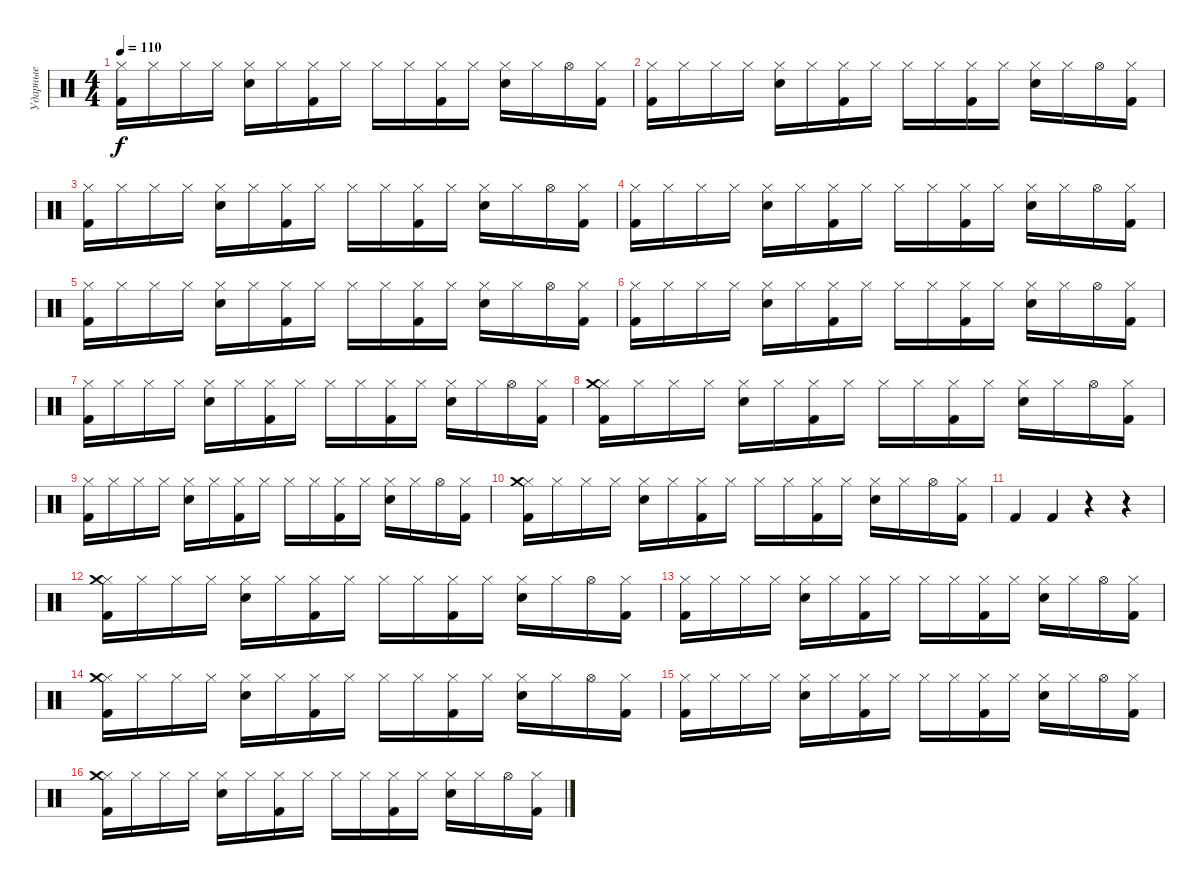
\track ("Ударные" "Ударные") {instrument percussion}
\staff {score}
\articulation defaults
\ts (4 4)
\tempo 110
\clef neutral
\ks c
("Hi-Hat (closed)" "Kick (hit) 2").16{dy f} "Hi-Hat (closed)".16 "Hi-Hat (closed)".16 "Hi-Hat (closed)".16 ("Hi-Hat (closed)" "Electric Snare (hit)").16 "Hi-Hat (closed)".16 ("Hi-Hat (closed)" "Kick (hit) 2").16 "Hi-Hat (closed)".16 "Hi-Hat (closed)".16 "Hi-Hat (closed)".16 ("Hi-Hat (closed)" "Kick (hit) 2").16 "Hi-Hat (closed)".16 ("Hi-Hat (closed)" "Electric Snare (hit)").16 "Hi-Hat (closed)".16 "Hi-Hat (open)".16 ("Hi-Hat (closed)" "Kick (hit) 2").16 |
("Hi-Hat (closed)" "Kick (hit) 2").16 "Hi-Hat (closed)".16 "Hi-Hat (closed)".16 "Hi-Hat (closed)".16 ("Hi-Hat (closed)" "Electric Snare (hit)").16 "Hi-Hat (closed)".16 ("Hi-Hat (closed)" "Kick (hit) 2").16 "Hi-Hat (closed)".16 "Hi-Hat (closed)".16 "Hi-Hat (closed)".16 ("Hi-Hat (closed)" "Kick (hit) 2").16 "Hi-Hat (closed)".16 ("Hi-Hat (closed)" "Electric Snare (hit)").16 "Hi-Hat (closed)".16 "Hi-Hat (open)".16 ("Hi-Hat (closed)" "Kick (hit) 2").16 |
("Hi-Hat (closed)" "Kick (hit) 2").16 "Hi-Hat (closed)".16 "Hi-Hat (closed)".16 "Hi-Hat (closed)".16 ("Hi-Hat (closed)" "Electric Snare (hit)").16 "Hi-Hat (closed)".16 ("Hi-Hat (closed)" "Kick (hit) 2").16 "Hi-Hat (closed)".16 "Hi-Hat (closed)".16 "Hi-Hat (closed)".16 ("Hi-Hat (closed)" "Kick (hit) 2").16 "Hi-Hat (closed)".16 ("Hi-Hat (closed)" "Electric Snare (hit)").16 "Hi-Hat (closed)".16 "Hi-Hat (open)".16 ("Hi-Hat (closed)" "Kick (hit) 2").16 |
("Hi-Hat (closed)" "Kick (hit) 2").16 "Hi-Hat (closed)".16 "Hi-Hat (closed)".16 "Hi-Hat (closed)".16 ("Hi-Hat (closed)" "Electric Snare (hit)").16 "Hi-Hat (closed)".16 ("Hi-Hat (closed)" "Kick (hit) 2").16 "Hi-Hat (closed)".16 "Hi-Hat (closed)".16 "Hi-Hat (closed)".16 ("Hi-Hat (closed)" "Kick (hit) 2").16 "Hi-Hat (closed)".16 ("Hi-Hat (closed)" "Electric Snare (hit)").16 "Hi-Hat (closed)".16 "Hi-Hat (open)".16 ("Hi-Hat (closed)" "Kick (hit) 2").16 |
("Hi-Hat (closed)" "Kick (hit) 2").16 "Hi-Hat (closed)".16 "Hi-Hat (closed)".16 "Hi-Hat (closed)".16 ("Hi-Hat (closed)" "Electric Snare (hit)").16 "Hi-Hat (closed)".16 ("Hi-Hat (closed)" "Kick (hit) 2").16 "Hi-Hat (closed)".16 "Hi-Hat (closed)".16 "Hi-Hat (closed)".16 ("Hi-Hat (closed)" "Kick (hit) 2").16 "Hi-Hat (closed)".16 ("Hi-Hat (closed)" "Electric Snare (hit)").16 "Hi-Hat (closed)".16 "Hi-Hat (open)".16 ("Hi-Hat (closed)" "Kick (hit) 2").16 |
("Hi-Hat (closed)" "Kick (hit) 2").16 "Hi-Hat (closed)".16 "Hi-Hat (closed)".16 "Hi-Hat (closed)".16 ("Hi-Hat (closed)" "Electric Snare (hit)").16 "Hi-Hat (closed)".16 ("Hi-Hat (closed)" "Kick (hit) 2").16 "Hi-Hat (closed)".16 "Hi-Hat (closed)".16 "Hi-Hat (closed)".16 ("Hi-Hat (closed)" "Kick (hit) 2").16 "Hi-Hat (closed)".16 ("Hi-Hat (closed)" "Electric Snare (hit)").16 "Hi-Hat (closed)".16 "Hi-Hat (open)".16 ("Hi-Hat (closed)" "Kick (hit) 2").16 |
("Hi-Hat (closed)" "Kick (hit) 2").16 "Hi-Hat (closed)".16 "Hi-Hat (closed)".16 "Hi-Hat (closed)".16 ("Hi-Hat (closed)" "Electric Snare (hit)").16 "Hi-Hat (closed)".16 ("Hi-Hat (closed)" "Kick (hit) 2").16 "Hi-Hat (closed)".16 "Hi-Hat (closed)".16 "Hi-Hat (closed)".16 ("Hi-Hat (closed)" "Kick (hit) 2").16 "Hi-Hat (closed)".16 ("Hi-Hat (closed)" "Electric Snare (hit)").16 "Hi-Hat (closed)".16 "Hi-Hat (open)".16 ("Hi-Hat (closed)" "Kick (hit) 2").16 |
("Hi-Hat (closed)" "Kick (hit) 2" "Crash medium (hit)").16 "Hi-Hat (closed)".16 "Hi-Hat (closed)".16 "Hi-Hat (closed)".16 ("Hi-Hat (closed)" "Electric Snare (hit)").16 "Hi-Hat (closed)".16 ("Hi-Hat (closed)" "Kick (hit) 2").16 "Hi-Hat (closed)".16 "Hi-Hat (closed)".16 "Hi-Hat (closed)".16 ("Hi-Hat (closed)" "Kick (hit) 2").16 "Hi-Hat (closed)".16 ("Hi-Hat (closed)" "Electric Snare (hit)").16 "Hi-Hat (closed)".16 "Hi-Hat (open)".16 ("Hi-Hat (closed)" "Kick (hit) 2").16 |
("Hi-Hat (closed)" "Kick (hit) 2").16 "Hi-Hat (closed)".16 "Hi-Hat (closed)".16 "Hi-Hat (closed)".16 ("Hi-Hat (closed)" "Electric Snare (hit)").16 "Hi-Hat (closed)".16 ("Hi-Hat (closed)" "Kick (hit) 2").16 "Hi-Hat (closed)".16 "Hi-Hat (closed)".16 "Hi-Hat (closed)".16 ("Hi-Hat (closed)" "Kick (hit) 2").16 "Hi-Hat (closed)".16 ("Hi-Hat (closed)" "Electric Snare (hit)").16 "Hi-Hat (closed)".16 "Hi-Hat (open)".16 ("Hi-Hat (closed)" "Kick (hit) 2").16 |
("Hi-Hat (closed)" "Kick (hit) 2" "Crash medium (hit)").16 "Hi-Hat (closed)".16 "Hi-Hat (closed)".16 "Hi-Hat (closed)".16 ("Hi-Hat (closed)" "Electric Snare (hit)").16 "Hi-Hat (closed)".16 ("Hi-Hat (closed)" "Kick (hit) 2").16 "Hi-Hat (closed)".16 "Hi-Hat (closed)".16 "Hi-Hat (closed)".16 ("Hi-Hat (closed)" "Kick (hit) 2").16 "Hi-Hat (closed)".16 ("Hi-Hat (closed)" "Electric Snare (hit)").16 "Hi-Hat (closed)".16 "Hi-Hat (open)".16 ("Hi-Hat (closed)" "Kick (hit) 2").16 |
"Kick (hit) 2".4 "Kick (hit) 2".4 r.4 r.4 |
("Hi-Hat (closed)" "Kick (hit) 2" "Crash medium (hit)").16 "Hi-Hat (closed)".16 "Hi-Hat (closed)".16 "Hi-Hat (closed)".16 ("Hi-Hat (closed)" "Electric Snare (hit)").16 "Hi-Hat (closed)".16 ("Hi-Hat (closed)" "Kick (hit) 2").16 "Hi-Hat (closed)".16 "Hi-Hat (closed)".16 "Hi-Hat (closed)".16 ("Hi-Hat (closed)" "Kick (hit) 2").16 "Hi-Hat (closed)".16 ("Hi-Hat (closed)" "Electric Snare (hit)").16 "Hi-Hat (closed)".16 "Hi-Hat (open)".16 ("Hi-Hat (closed)" "Kick (hit) 2").16 |
("Hi-Hat (closed)" "Kick (hit) 2").16 "Hi-Hat (closed)".16 "Hi-Hat (closed)".16 "Hi-Hat (closed)".16 ("Hi-Hat (closed)" "Electric Snare (hit)").16 "Hi-Hat (closed)".16 ("Hi-Hat (closed)" "Kick (hit) 2").16 "Hi-Hat (closed)".16 "Hi-Hat (closed)".16 "Hi-Hat (closed)".16 ("Hi-Hat (closed)" "Kick (hit) 2").16 "Hi-Hat (closed)".16 ("Hi-Hat (closed)" "Electric Snare (hit)").16 "Hi-Hat (closed)".16 "Hi-Hat (open)".16 ("Hi-Hat (closed)" "Kick (hit) 2").16 |
("Hi-Hat (closed)" "Crash medium (hit)" "Kick (hit) 2").16 "Hi-Hat (closed)".16 "Hi-Hat (closed)".16 "Hi-Hat (closed)".16 ("Hi-Hat (closed)" "Electric Snare (hit)").16 "Hi-Hat (closed)".16 ("Hi-Hat (closed)" "Kick (hit) 2").16 "Hi-Hat (closed)".16 "Hi-Hat (closed)".16 "Hi-Hat (closed)".16 ("Hi-Hat (closed)" "Kick (hit) 2").16 "Hi-Hat (closed)".16 ("Hi-Hat (closed)" "Electric Snare (hit)").16 "Hi-Hat (closed)".16 "Hi-Hat (open)".16 ("Hi-Hat (closed)" "Kick (hit) 2").16 |
("Hi-Hat (closed)" "Kick (hit) 2").16 "Hi-Hat (closed)".16 "Hi-Hat (closed)".16 "Hi-Hat (closed)".16 ("Hi-Hat (closed)" "Electric Snare (hit)").16 "Hi-Hat (closed)".16 ("Hi-Hat (closed)" "Kick (hit) 2").16 "Hi-Hat (closed)".16 "Hi-Hat (closed)".16 "Hi-Hat (closed)".16 ("Hi-Hat (closed)" "Kick (hit) 2").16 "Hi-Hat (closed)".16 ("Hi-Hat (closed)" "Electric Snare (hit)").16 "Hi-Hat (closed)".16 "Hi-Hat (open)".16 ("Hi-Hat (closed)" "Kick (hit) 2").16 |
("Hi-Hat (closed)" "Kick (hit) 2" "Crash medium (hit)").16 "Hi-Hat (closed)".16 "Hi-Hat (closed)".16 "Hi-Hat (closed)".16 ("Hi-Hat (closed)" "Electric Snare (hit)").16 "Hi-Hat (closed)".16 ("Hi-Hat (closed)" "Kick (hit) 2").16 "Hi-Hat (closed)".16 "Hi-Hat (closed)".16 "Hi-Hat (closed)".16 ("Hi-Hat (closed)" "Kick (hit) 2").16 "Hi-Hat (closed)".16 ("Hi-Hat (closed)" "Electric Snare (hit)").16 "Hi-Hat (closed)".16 "Hi-Hat (open)".16 ("Hi-Hat (closed)" "Kick (hit) 2").16
